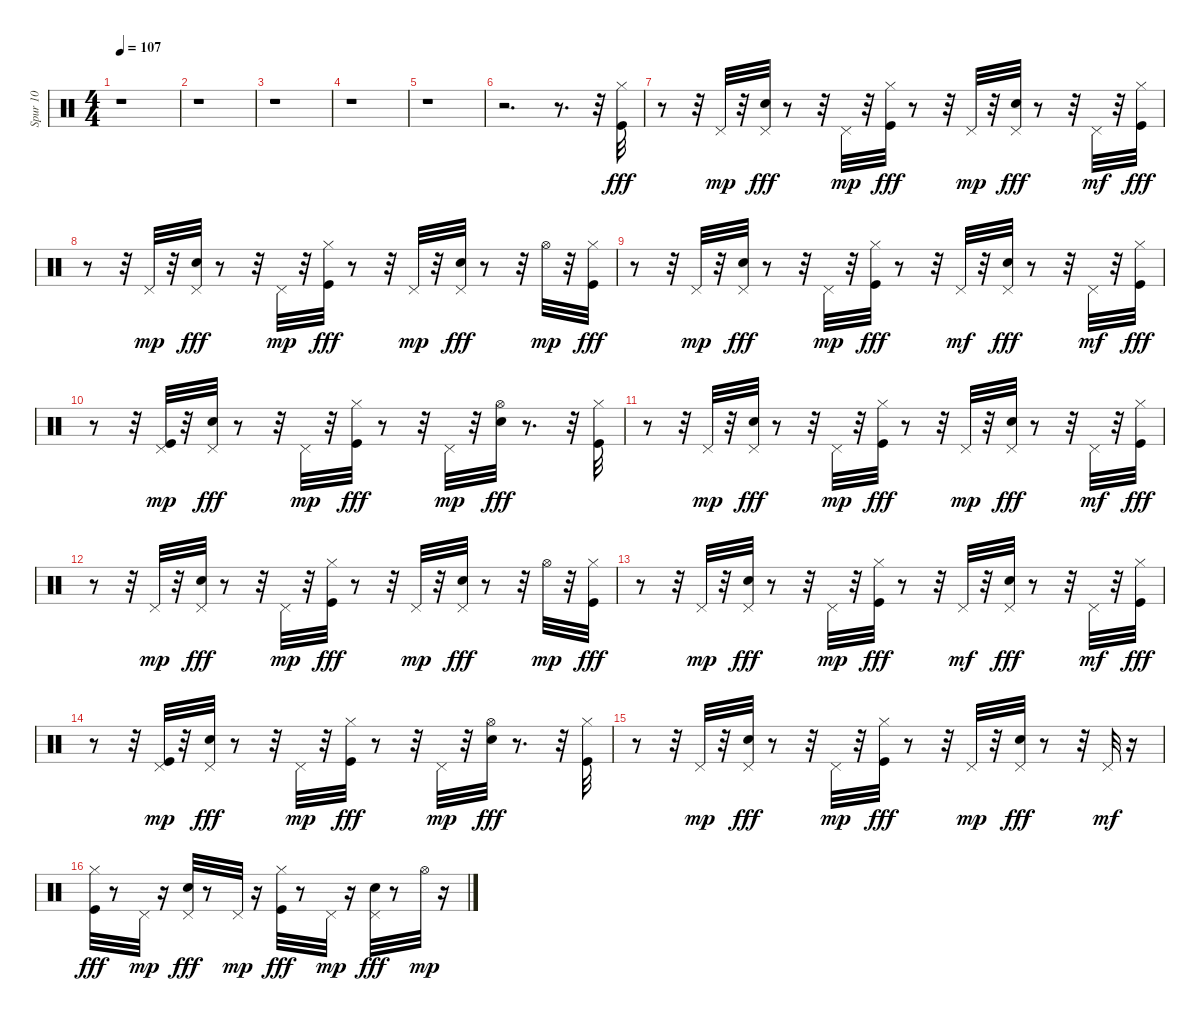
\track ("Spur 10" "Spur 10") {instrument percussion}
\staff {score}
\articulation defaults
\ts (4 4)
\tempo 107
\clef neutral
\ks c
r.1{dy fff} |
r.1 |
r.1 |
r.1 |
r.1 |
r.2{d} r.8{d} r.32 ("Hi-Hat (closed)" "Kick (hit)").32{volume 12 balance 8} |
r.8 r.32 "Pedal Hi-Hat (hit)".32{dy mp} r.32 ("Pedal Hi-Hat (hit)" "Snare (hit) 2").32{dy fff} r.8 r.32 "Pedal Hi-Hat (hit)".32{dy mp} r.32 ("Hi-Hat (closed)" "Kick (hit)").32{dy fff} r.8 r.32 "Pedal Hi-Hat (hit)".32{dy mp} r.32 ("Pedal Hi-Hat (hit)" "Snare (hit) 2").32{dy fff} r.8 r.32 "Pedal Hi-Hat (hit)".32{dy mf} r.32 ("Hi-Hat (closed)" "Kick (hit)").32{dy fff} |
r.8 r.32 "Pedal Hi-Hat (hit)".32{dy mp} r.32 ("Pedal Hi-Hat (hit)" "Snare (hit) 2").32{dy fff} r.8 r.32 "Pedal Hi-Hat (hit)".32{dy mp} r.32 ("Hi-Hat (closed)" "Kick (hit)").32{dy fff} r.8 r.32 "Pedal Hi-Hat (hit)".32{dy mp} r.32 ("Pedal Hi-Hat (hit)" "Snare (hit) 2").32{dy fff} r.8 r.32 "Hi-Hat (open)".32{dy mp} r.32 ("Hi-Hat (closed)" "Kick (hit)").32{dy fff} |
r.8 r.32 "Pedal Hi-Hat (hit)".32{dy mp} r.32 ("Pedal Hi-Hat (hit)" "Snare (hit) 2").32{dy fff} r.8 r.32 "Pedal Hi-Hat (hit)".32{dy mp} r.32 ("Hi-Hat (closed)" "Kick (hit)").32{dy fff} r.8 r.32 "Pedal Hi-Hat (hit)".32{dy mf} r.32 ("Pedal Hi-Hat (hit)" "Snare (hit) 2").32{dy fff} r.8 r.32 "Pedal Hi-Hat (hit)".32{dy mf} r.32 ("Hi-Hat (closed)" "Kick (hit)").32{dy fff} |
r.8 r.32 ("Pedal Hi-Hat (hit)" "Kick (hit)").32{dy mp} r.32 ("Pedal Hi-Hat (hit)" "Snare (hit) 2").32{dy fff} r.8 r.32 "Pedal Hi-Hat (hit)".32{dy mp} r.32 ("Hi-Hat (closed)" "Kick (hit)").32{dy fff} r.8 r.32 "Pedal Hi-Hat (hit)".32{dy mp} r.32 ("Hi-Hat (open)" "Snare (hit) 2").32{dy fff} r.8{d} r.32 ("Hi-Hat (closed)" "Kick (hit)").32 |
r.8 r.32 "Pedal Hi-Hat (hit)".32{dy mp} r.32 ("Pedal Hi-Hat (hit)" "Snare (hit) 2").32{dy fff} r.8 r.32 "Pedal Hi-Hat (hit)".32{dy mp} r.32 ("Hi-Hat (closed)" "Kick (hit)").32{dy fff} r.8 r.32 "Pedal Hi-Hat (hit)".32{dy mp} r.32 ("Pedal Hi-Hat (hit)" "Snare (hit) 2").32{dy fff} r.8 r.32 "Pedal Hi-Hat (hit)".32{dy mf} r.32 ("Hi-Hat (closed)" "Kick (hit)").32{dy fff} |
r.8 r.32 "Pedal Hi-Hat (hit)".32{dy mp} r.32 ("Pedal Hi-Hat (hit)" "Snare (hit) 2").32{dy fff} r.8 r.32 "Pedal Hi-Hat (hit)".32{dy mp} r.32 ("Hi-Hat (closed)" "Kick (hit)").32{dy fff} r.8 r.32 "Pedal Hi-Hat (hit)".32{dy mp} r.32 ("Pedal Hi-Hat (hit)" "Snare (hit) 2").32{dy fff} r.8 r.32 "Hi-Hat (open)".32{dy mp} r.32 ("Hi-Hat (closed)" "Kick (hit)").32{dy fff} |
r.8 r.32 "Pedal Hi-Hat (hit)".32{dy mp} r.32 ("Pedal Hi-Hat (hit)" "Snare (hit) 2").32{dy fff} r.8 r.32 "Pedal Hi-Hat (hit)".32{dy mp} r.32 ("Hi-Hat (closed)" "Kick (hit)").32{dy fff} r.8 r.32 "Pedal Hi-Hat (hit)".32{dy mf} r.32 ("Pedal Hi-Hat (hit)" "Snare (hit) 2").32{dy fff} r.8 r.32 "Pedal Hi-Hat (hit)".32{dy mf} r.32 ("Hi-Hat (closed)" "Kick (hit)").32{dy fff} |
r.8 r.32 ("Pedal Hi-Hat (hit)" "Kick (hit)").32{dy mp} r.32 ("Pedal Hi-Hat (hit)" "Snare (hit) 2").32{dy fff} r.8 r.32 "Pedal Hi-Hat (hit)".32{dy mp} r.32 ("Hi-Hat (closed)" "Kick (hit)").32{dy fff} r.8 r.32 "Pedal Hi-Hat (hit)".32{dy mp} r.32 ("Hi-Hat (open)" "Snare (hit) 2").32{dy fff} r.8{d} r.32 ("Hi-Hat (closed)" "Kick (hit)").32 |
r.8 r.32 "Pedal Hi-Hat (hit)".32{dy mp} r.32 ("Pedal Hi-Hat (hit)" "Snare (hit) 2").32{dy fff} r.8 r.32 "Pedal Hi-Hat (hit)".32{dy mp} r.32 ("Hi-Hat (closed)" "Kick (hit)").32{dy fff} r.8 r.32 "Pedal Hi-Hat (hit)".32{dy mp} r.32 ("Pedal Hi-Hat (hit)" "Snare (hit) 2").32{dy fff} r.8 r.32 "Pedal Hi-Hat (hit)".32{dy mf} r.16 |
("Hi-Hat (closed)" "Kick (hit)").32{dy fff} r.8 "Pedal Hi-Hat (hit)".32{dy mp} r.16 ("Pedal Hi-Hat (hit)" "Snare (hit) 2").32{dy fff} r.8 "Pedal Hi-Hat (hit)".32{dy mp} r.16 ("Hi-Hat (closed)" "Kick (hit)").32{dy fff} r.8 "Pedal Hi-Hat (hit)".32{dy mp} r.16 ("Pedal Hi-Hat (hit)" "Snare (hit) 2").32{dy fff} r.8 "Hi-Hat (open)".32{dy mp} r.16
